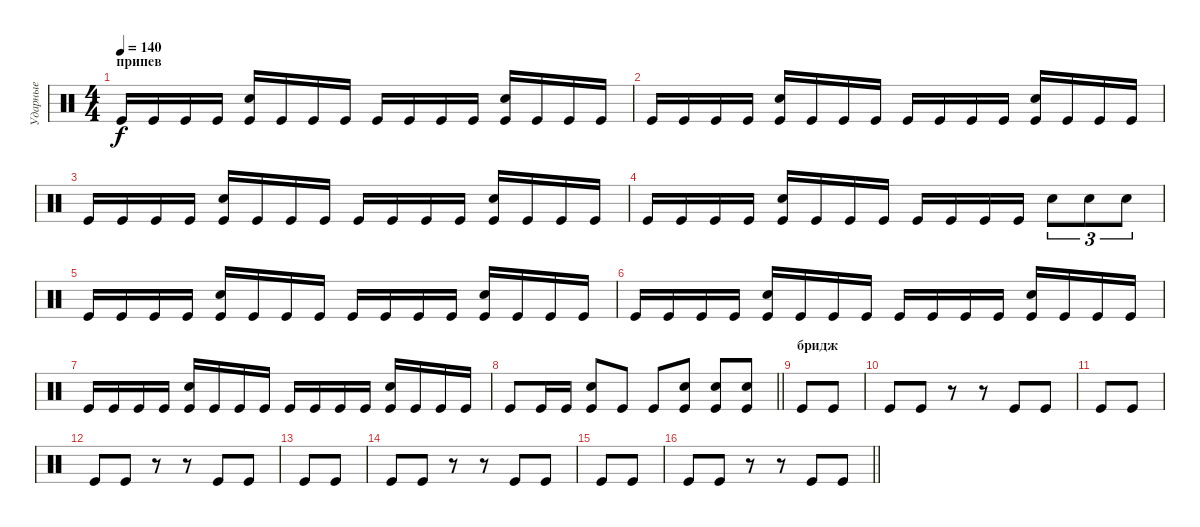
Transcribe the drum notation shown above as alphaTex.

\track ("Ударные" "Ударные") {instrument percussion}
\staff {score}
\articulation defaults
\ts (4 4)
\section ("" "припев")
\tempo 140
\clef neutral
\ks c "Kick (hit)".16{dy f} "Kick (hit)".16 "Kick (hit)".16 "Kick (hit)".16
("Snare (hit) 2" "Kick (hit)").16 "Kick (hit)".16 "Kick (hit)".16 "Kick (hit)".16 "Kick (hit)".16 "Kick (hit)".16 "Kick (hit)".16 "Kick (hit)".16 ("Kick (hit)" "Snare (hit) 2").16 "Kick (hit)".16 "Kick (hit)".16 "Kick (hit)".16 |
"Kick (hit)".16 "Kick (hit)".16 "Kick (hit)".16 "Kick (hit)".16 ("Snare (hit) 2" "Kick (hit)").16 "Kick (hit)".16 "Kick (hit)".16 "Kick (hit)".16 "Kick (hit)".16 "Kick (hit)".16 "Kick (hit)".16 "Kick (hit)".16 ("Kick (hit)" "Snare (hit) 2").16 "Kick (hit)".16 "Kick (hit)".16 "Kick (hit)".16 |
"Kick (hit)".16 "Kick (hit)".16 "Kick (hit)".16 "Kick (hit)".16 ("Snare (hit) 2" "Kick (hit)").16 "Kick (hit)".16 "Kick (hit)".16 "Kick (hit)".16 "Kick (hit)".16 "Kick (hit)".16 "Kick (hit)".16 "Kick (hit)".16 ("Kick (hit)" "Snare (hit) 2").16 "Kick (hit)".16 "Kick (hit)".16 "Kick (hit)".16 |
"Kick (hit)".16 "Kick (hit)".16 "Kick (hit)".16 "Kick (hit)".16 ("Snare (hit) 2" "Kick (hit)").16 "Kick (hit)".16 "Kick (hit)".16 "Kick (hit)".16 "Kick (hit)".16 "Kick (hit)".16 "Kick (hit)".16 "Kick (hit)".16 "Snare (hit) 2".8{tu (3 2)} "Snare (hit) 2".8{tu (3 2)} "Snare (hit) 2".8{tu (3 2)} |
"Kick (hit)".16 "Kick (hit)".16 "Kick (hit)".16 "Kick (hit)".16 ("Snare (hit) 2" "Kick (hit)").16 "Kick (hit)".16 "Kick (hit)".16 "Kick (hit)".16 "Kick (hit)".16 "Kick (hit)".16 "Kick (hit)".16 "Kick (hit)".16 ("Kick (hit)" "Snare (hit) 2").16 "Kick (hit)".16 "Kick (hit)".16 "Kick (hit)".16 |
"Kick (hit)".16 "Kick (hit)".16 "Kick (hit)".16 "Kick (hit)".16 ("Snare (hit) 2" "Kick (hit)").16 "Kick (hit)".16 "Kick (hit)".16 "Kick (hit)".16 "Kick (hit)".16 "Kick (hit)".16 "Kick (hit)".16 "Kick (hit)".16 ("Kick (hit)" "Snare (hit) 2").16 "Kick (hit)".16 "Kick (hit)".16 "Kick (hit)".16 |
"Kick (hit)".16 "Kick (hit)".16 "Kick (hit)".16 "Kick (hit)".16 ("Snare (hit) 2" "Kick (hit)").16 "Kick (hit)".16 "Kick (hit)".16 "Kick (hit)".16 "Kick (hit)".16 "Kick (hit)".16 "Kick (hit)".16 "Kick (hit)".16 ("Kick (hit)" "Snare (hit) 2").16 "Kick (hit)".16 "Kick (hit)".16 "Kick (hit)".16 |
\barLineRight lightlight "Kick (hit)".8 "Kick (hit)".16 "Kick (hit)".16
("Kick (hit)" "Snare (hit) 2").8 "Kick (hit)".8 "Kick (hit)".8 ("Kick (hit)" "Snare (hit) 2").8 ("Kick (hit)" "Snare (hit) 2").8 ("Kick (hit)" "Snare (hit) 2").8 |
\section ("" "бридж")
"Kick (hit)".8 "Kick (hit)".8 |
"Kick (hit)".8 "Kick (hit)".8 r.8 r.8 "Kick (hit)".8 "Kick (hit)".8 |
"Kick (hit)".8 "Kick (hit)".8 |
"Kick (hit)".8 "Kick (hit)".8 r.8 r.8 "Kick (hit)".8 "Kick (hit)".8 |
"Kick (hit)".8 "Kick (hit)".8 |
"Kick (hit)".8 "Kick (hit)".8 r.8 r.8 "Kick (hit)".8 "Kick (hit)".8 |
"Kick (hit)".8 "Kick (hit)".8 |
\barLineRight lightlight "Kick (hit)".8 "Kick (hit)".8
r.8 r.8 "Kick (hit)".8 "Kick (hit)".8
